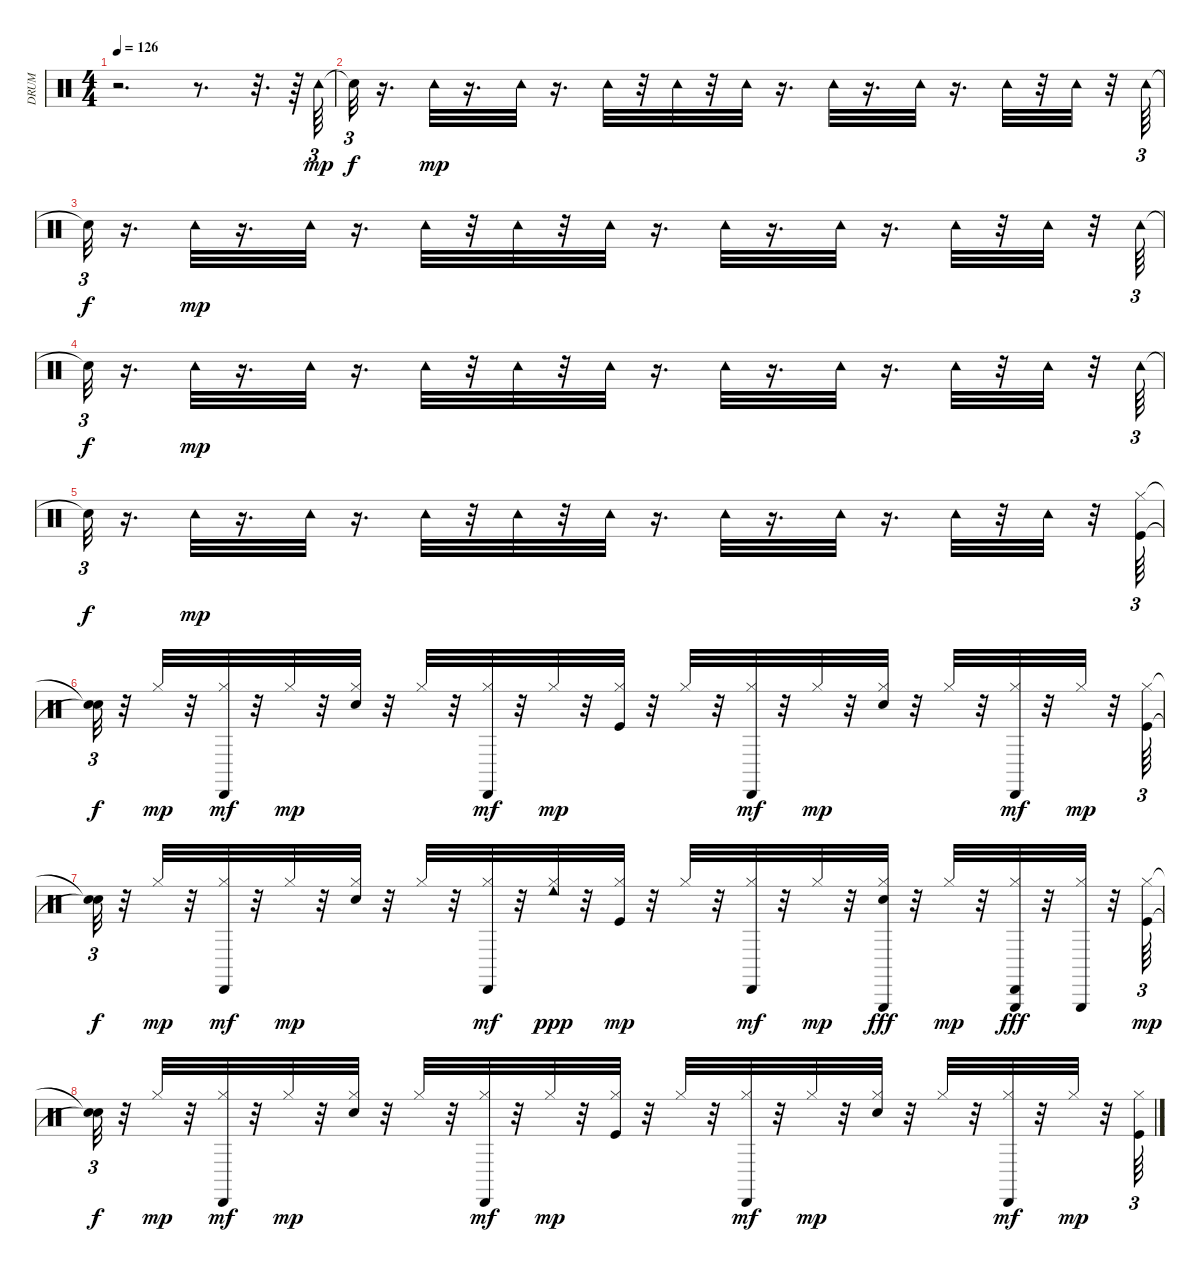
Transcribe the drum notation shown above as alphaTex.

\track ("DRUM" "DRUM") {instrument percussion}
\staff {score}
\articulation defaults
\ts (4 4)
\tempo 126
\clef neutral
\ks c
r.2{d dy mp} r.8{d} r.32{d} r.64 "Tambourine (hit)".64{tu (3 2)} |
"Snare (hit)"{t}.32{tu (3 2) dy f} r.16{d} "Tambourine (hit)".32{dy mp} r.16{d} "Tambourine (hit)".32 r.16{d} "Tambourine (hit)".32 r.32 "Tambourine (hit)".32 r.32 "Tambourine (hit)".32 r.16{d} "Tambourine (hit)".32 r.16{d} "Tambourine (hit)".32 r.16{d} "Tambourine (hit)".32 r.32 "Tambourine (hit)".32 r.32 "Tambourine (hit)".64{tu (3 2)} |
"Snare (hit)"{t}.32{tu (3 2) dy f} r.16{d} "Tambourine (hit)".32{dy mp} r.16{d} "Tambourine (hit)".32 r.16{d} "Tambourine (hit)".32 r.32 "Tambourine (hit)".32 r.32 "Tambourine (hit)".32 r.16{d} "Tambourine (hit)".32 r.16{d} "Tambourine (hit)".32 r.16{d} "Tambourine (hit)".32 r.32 "Tambourine (hit)".32 r.32 "Tambourine (hit)".64{tu (3 2)} |
"Snare (hit)"{t}.32{tu (3 2) dy f} r.16{d} "Tambourine (hit)".32{dy mp} r.16{d} "Tambourine (hit)".32 r.16{d} "Tambourine (hit)".32 r.32 "Tambourine (hit)".32 r.32 "Tambourine (hit)".32 r.16{d} "Tambourine (hit)".32 r.16{d} "Tambourine (hit)".32 r.16{d} "Tambourine (hit)".32 r.32 "Tambourine (hit)".32 r.32 "Tambourine (hit)".64{tu (3 2)} |
"Snare (hit)"{t}.32{tu (3 2) dy f} r.16{d} "Tambourine (hit)".32{dy mp} r.16{d} "Tambourine (hit)".32 r.16{d} "Tambourine (hit)".32 r.32 "Tambourine (hit)".32 r.32 "Tambourine (hit)".32 r.16{d} "Tambourine (hit)".32 r.16{d} "Tambourine (hit)".32 r.16{d} "Tambourine (hit)".32 r.32 "Tambourine (hit)".32 r.32 ("Kick (hit)" "Hi-Hat (closed)").64{tu (3 2)} |
("Snare (hit)"{t} "Snare (hit)"{t}).32{tu (3 2) dy f} r.32 "Hi-Hat (closed)".32{dy mp} r.32 ("Hi-Hat (closed)" "Cabasa (hit)").32{dy mf} r.32 "Hi-Hat (closed)".32{dy mp} r.32 ("Snare (hit) 2" "Hi-Hat (closed)").32 r.32 "Hi-Hat (closed)".32 r.32 ("Hi-Hat (closed)" "Cabasa (hit)").32{dy mf} r.32 "Hi-Hat (closed)".32{dy mp} r.32 ("Kick (hit)" "Hi-Hat (closed)").32 r.32 "Hi-Hat (closed)".32 r.32 ("Hi-Hat (closed)" "Cabasa (hit)").32{dy mf} r.32 "Hi-Hat (closed)".32{dy mp} r.32 ("Snare (hit) 2" "Hi-Hat (closed)").32 r.32 "Hi-Hat (closed)".32 r.32 ("Hi-Hat (closed)" "Cabasa (hit)").32{dy mf} r.32 "Hi-Hat (closed)".32{dy mp} r.32 ("Kick (hit)" "Hi-Hat (closed)").64{tu (3 2)} |
("Snare (hit)"{t} "Snare (hit)"{t}).32{tu (3 2) dy f} r.32 "Hi-Hat (closed)".32{dy mp} r.32 ("Hi-Hat (closed)" "Cabasa (hit)").32{dy mf} r.32 "Hi-Hat (closed)".32{dy mp} r.32 ("Snare (hit) 2" "Hi-Hat (closed)").32 r.32 "Hi-Hat (closed)".32 r.32 ("Hi-Hat (closed)" "Cabasa (hit)").32{dy mf} r.32 ("Hi-Hat (closed)" "Cowbell low (hit)").32{dy ppp} r.32 ("Kick (hit)" "Hi-Hat (closed)").32{dy mp} r.32 "Hi-Hat (closed)".32 r.32 ("Hi-Hat (closed)" "Cabasa (hit)").32{dy mf} r.32 "Hi-Hat (closed)".32{dy mp} r.32 ("Snare (hit) 2" "Hi-Hat (closed)" "Triangle (hit)").32{dy fff} r.32 "Hi-Hat (closed)".32{dy mp} r.32 ("Hi-Hat (closed)" "Cabasa (hit)" "Triangle (hit)").32{dy fff} r.32 ("Hi-Hat (closed)" "Triangle (hit)").32 r.32 ("Kick (hit)" "Hi-Hat (closed)").64{tu (3 2) dy mp} |
("Snare (hit)"{t} "Snare (hit)"{t}).32{tu (3 2) dy f} r.32 "Hi-Hat (closed)".32{dy mp} r.32 ("Hi-Hat (closed)" "Cabasa (hit)").32{dy mf} r.32 "Hi-Hat (closed)".32{dy mp} r.32 ("Snare (hit) 2" "Hi-Hat (closed)").32 r.32 "Hi-Hat (closed)".32 r.32 ("Hi-Hat (closed)" "Cabasa (hit)").32{dy mf} r.32 "Hi-Hat (closed)".32{dy mp} r.32 ("Kick (hit)" "Hi-Hat (closed)").32 r.32 "Hi-Hat (closed)".32 r.32 ("Hi-Hat (closed)" "Cabasa (hit)").32{dy mf} r.32 "Hi-Hat (closed)".32{dy mp} r.32 ("Snare (hit) 2" "Hi-Hat (closed)").32 r.32 "Hi-Hat (closed)".32 r.32 ("Hi-Hat (closed)" "Cabasa (hit)").32{dy mf} r.32 "Hi-Hat (closed)".32{dy mp} r.32 ("Kick (hit)" "Hi-Hat (closed)").64{tu (3 2)}
